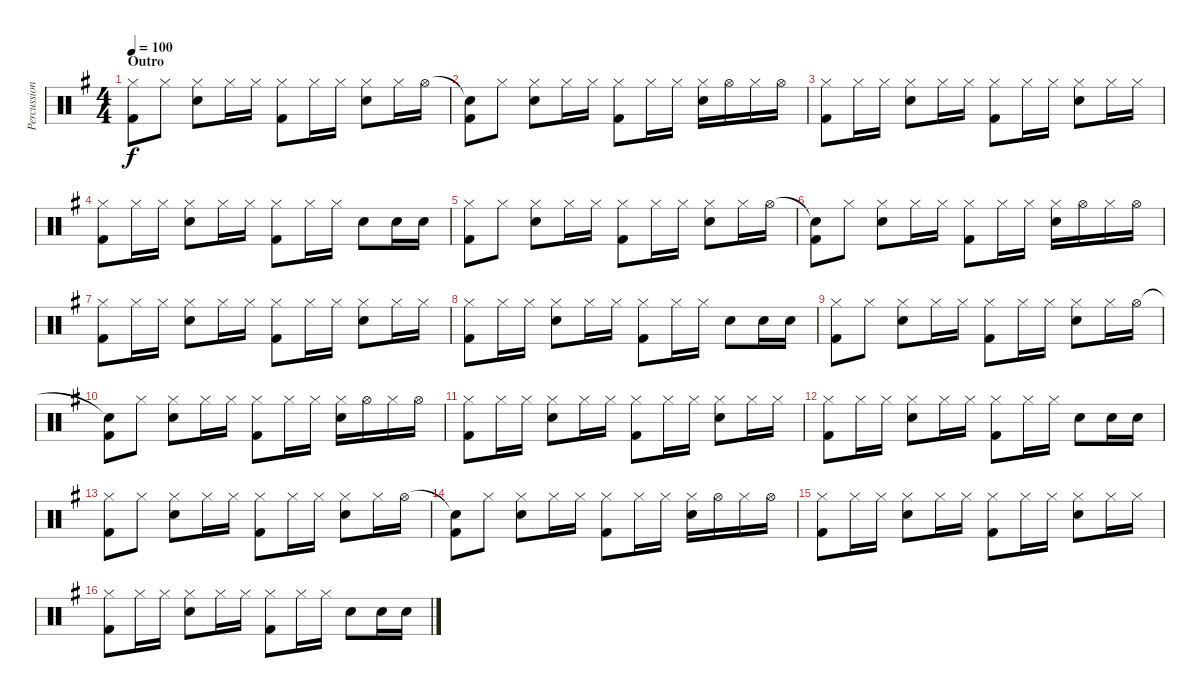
\track ("Percussion" "Percussion") {instrument percussion}
\staff {score}
\articulation defaults
\ts (4 4)
\section ("" "Outro")
\tempo 100
\clef neutral
\ks g
("Hi-Hat (closed)" "Kick (hit) 2").8{dy f} "Hi-Hat (closed)".8 ("Hi-Hat (closed)" "Electric Snare (hit)").8 "Hi-Hat (closed)".16 "Hi-Hat (closed)".16 ("Hi-Hat (closed)" "Kick (hit) 2").8 "Hi-Hat (closed)".16 "Hi-Hat (closed)".16 ("Hi-Hat (closed)" "Electric Snare (hit)").8 "Hi-Hat (closed)".16 "Hi-Hat (open)".16 |
("Snare (hit)"{t} "Kick (hit) 2").8 "Hi-Hat (closed)".8 ("Hi-Hat (closed)" "Electric Snare (hit)").8 "Hi-Hat (closed)".16 "Hi-Hat (closed)".16 ("Hi-Hat (closed)" "Kick (hit) 2").8 "Hi-Hat (closed)".16 "Hi-Hat (closed)".16 ("Hi-Hat (closed)" "Electric Snare (hit)").16 "Hi-Hat (open)".16 "Hi-Hat (closed)".16 "Hi-Hat (open)".16 |
("Hi-Hat (closed)" "Kick (hit) 2").8 "Hi-Hat (closed)".16 "Hi-Hat (closed)".16 ("Hi-Hat (closed)" "Electric Snare (hit)").8 "Hi-Hat (closed)".16 "Hi-Hat (closed)".16 ("Hi-Hat (closed)" "Kick (hit) 2").8 "Hi-Hat (closed)".16 "Hi-Hat (closed)".16 ("Hi-Hat (closed)" "Electric Snare (hit)").8 "Hi-Hat (closed)".16 "Hi-Hat (closed)".16 |
("Hi-Hat (closed)" "Kick (hit) 2").8 "Hi-Hat (closed)".16 "Hi-Hat (closed)".16 ("Hi-Hat (closed)" "Electric Snare (hit)").8 "Hi-Hat (closed)".16 "Hi-Hat (closed)".16 ("Hi-Hat (closed)" "Kick (hit) 2").8 "Hi-Hat (closed)".16 "Hi-Hat (closed)".16 "Electric Snare (hit)".8 "Electric Snare (hit)".16 "Electric Snare (hit)".16 |
("Hi-Hat (closed)" "Kick (hit) 2").8 "Hi-Hat (closed)".8 ("Hi-Hat (closed)" "Electric Snare (hit)").8 "Hi-Hat (closed)".16 "Hi-Hat (closed)".16 ("Hi-Hat (closed)" "Kick (hit) 2").8 "Hi-Hat (closed)".16 "Hi-Hat (closed)".16 ("Hi-Hat (closed)" "Electric Snare (hit)").8 "Hi-Hat (closed)".16 "Hi-Hat (open)".16 |
("Snare (hit)"{t} "Kick (hit) 2").8 "Hi-Hat (closed)".8 ("Hi-Hat (closed)" "Electric Snare (hit)").8 "Hi-Hat (closed)".16 "Hi-Hat (closed)".16 ("Hi-Hat (closed)" "Kick (hit) 2").8 "Hi-Hat (closed)".16 "Hi-Hat (closed)".16 ("Hi-Hat (closed)" "Electric Snare (hit)").16 "Hi-Hat (open)".16 "Hi-Hat (closed)".16 "Hi-Hat (open)".16 |
("Hi-Hat (closed)" "Kick (hit) 2").8 "Hi-Hat (closed)".16 "Hi-Hat (closed)".16 ("Hi-Hat (closed)" "Electric Snare (hit)").8 "Hi-Hat (closed)".16 "Hi-Hat (closed)".16 ("Hi-Hat (closed)" "Kick (hit) 2").8 "Hi-Hat (closed)".16 "Hi-Hat (closed)".16 ("Hi-Hat (closed)" "Electric Snare (hit)").8 "Hi-Hat (closed)".16 "Hi-Hat (closed)".16 |
("Hi-Hat (closed)" "Kick (hit) 2").8 "Hi-Hat (closed)".16 "Hi-Hat (closed)".16 ("Hi-Hat (closed)" "Electric Snare (hit)").8 "Hi-Hat (closed)".16 "Hi-Hat (closed)".16 ("Hi-Hat (closed)" "Kick (hit) 2").8 "Hi-Hat (closed)".16 "Hi-Hat (closed)".16 "Electric Snare (hit)".8 "Electric Snare (hit)".16 "Electric Snare (hit)".16 |
("Hi-Hat (closed)" "Kick (hit) 2").8 "Hi-Hat (closed)".8 ("Hi-Hat (closed)" "Electric Snare (hit)").8 "Hi-Hat (closed)".16 "Hi-Hat (closed)".16 ("Hi-Hat (closed)" "Kick (hit) 2").8 "Hi-Hat (closed)".16 "Hi-Hat (closed)".16 ("Hi-Hat (closed)" "Electric Snare (hit)").8 "Hi-Hat (closed)".16 "Hi-Hat (open)".16 |
("Snare (hit)"{t} "Kick (hit) 2").8 "Hi-Hat (closed)".8 ("Hi-Hat (closed)" "Electric Snare (hit)").8 "Hi-Hat (closed)".16 "Hi-Hat (closed)".16 ("Hi-Hat (closed)" "Kick (hit) 2").8 "Hi-Hat (closed)".16 "Hi-Hat (closed)".16 ("Hi-Hat (closed)" "Electric Snare (hit)").16 "Hi-Hat (open)".16 "Hi-Hat (closed)".16 "Hi-Hat (open)".16 |
("Hi-Hat (closed)" "Kick (hit) 2").8 "Hi-Hat (closed)".16 "Hi-Hat (closed)".16 ("Hi-Hat (closed)" "Electric Snare (hit)").8 "Hi-Hat (closed)".16 "Hi-Hat (closed)".16 ("Hi-Hat (closed)" "Kick (hit) 2").8 "Hi-Hat (closed)".16 "Hi-Hat (closed)".16 ("Hi-Hat (closed)" "Electric Snare (hit)").8 "Hi-Hat (closed)".16 "Hi-Hat (closed)".16 |
("Hi-Hat (closed)" "Kick (hit) 2").8 "Hi-Hat (closed)".16 "Hi-Hat (closed)".16 ("Hi-Hat (closed)" "Electric Snare (hit)").8 "Hi-Hat (closed)".16 "Hi-Hat (closed)".16 ("Hi-Hat (closed)" "Kick (hit) 2").8 "Hi-Hat (closed)".16 "Hi-Hat (closed)".16 "Electric Snare (hit)".8 "Electric Snare (hit)".16 "Electric Snare (hit)".16 |
("Hi-Hat (closed)" "Kick (hit) 2").8{volume 0} "Hi-Hat (closed)".8 ("Hi-Hat (closed)" "Electric Snare (hit)").8 "Hi-Hat (closed)".16 "Hi-Hat (closed)".16 ("Hi-Hat (closed)" "Kick (hit) 2").8 "Hi-Hat (closed)".16 "Hi-Hat (closed)".16 ("Hi-Hat (closed)" "Electric Snare (hit)").8 "Hi-Hat (closed)".16 "Hi-Hat (open)".16 |
("Snare (hit)"{t} "Kick (hit) 2").8 "Hi-Hat (closed)".8 ("Hi-Hat (closed)" "Electric Snare (hit)").8 "Hi-Hat (closed)".16 "Hi-Hat (closed)".16 ("Hi-Hat (closed)" "Kick (hit) 2").8 "Hi-Hat (closed)".16 "Hi-Hat (closed)".16 ("Hi-Hat (closed)" "Electric Snare (hit)").16 "Hi-Hat (open)".16 "Hi-Hat (closed)".16 "Hi-Hat (open)".16 |
("Hi-Hat (closed)" "Kick (hit) 2").8 "Hi-Hat (closed)".16 "Hi-Hat (closed)".16 ("Hi-Hat (closed)" "Electric Snare (hit)").8 "Hi-Hat (closed)".16 "Hi-Hat (closed)".16 ("Hi-Hat (closed)" "Kick (hit) 2").8 "Hi-Hat (closed)".16 "Hi-Hat (closed)".16 ("Hi-Hat (closed)" "Electric Snare (hit)").8 "Hi-Hat (closed)".16 "Hi-Hat (closed)".16 |
("Hi-Hat (closed)" "Kick (hit) 2").8 "Hi-Hat (closed)".16 "Hi-Hat (closed)".16 ("Hi-Hat (closed)" "Electric Snare (hit)").8 "Hi-Hat (closed)".16 "Hi-Hat (closed)".16 ("Hi-Hat (closed)" "Kick (hit) 2").8 "Hi-Hat (closed)".16 "Hi-Hat (closed)".16 "Electric Snare (hit)".8 "Electric Snare (hit)".16 "Electric Snare (hit)".16
